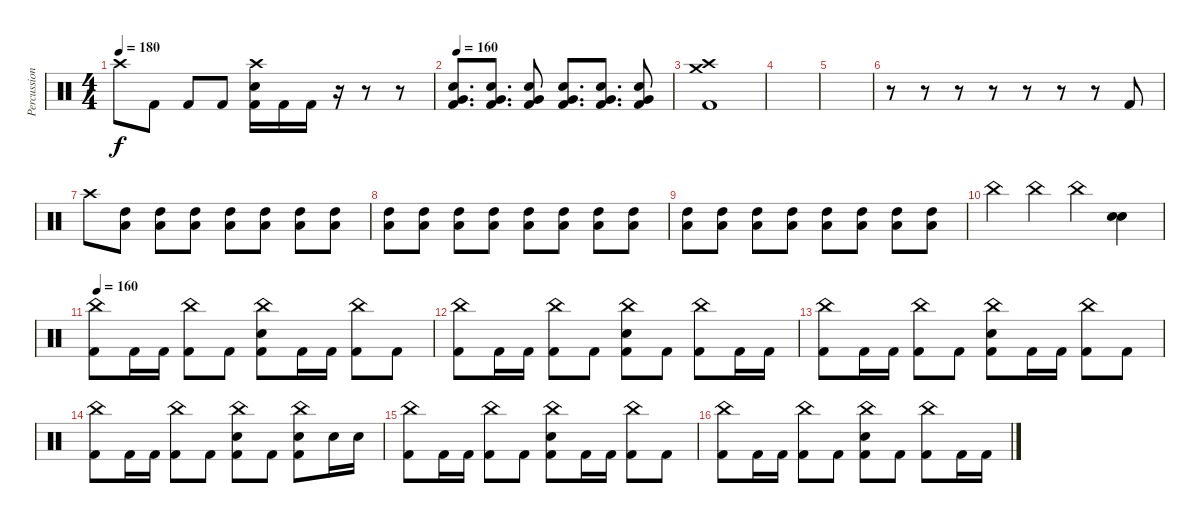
\track ("Percussioni" "Percussion") {instrument percussion}
\staff {score}
\articulation defaults
\ts (4 4)
\tempo 180
\clef neutral
\ks c "Crash high (hit)".8{dy f} "Kick (hit) 2".8 "Kick (hit) 2".8 "Kick (hit) 2".8
("Crash high (hit)" "Electric Snare (hit)" "Kick (hit) 2").16 "Kick (hit) 2".16 "Kick (hit) 2".16 r.16 r.8 r.8 |
\tempo 160
("Electric Snare (hit)" "Very Low Tom (hit)" "Kick (hit) 2").8{d} ("Electric Snare (hit)" "Very Low Tom (hit)" "Kick (hit) 2").8{d} ("Electric Snare (hit)" "Very Low Tom (hit)" "Kick (hit) 2").8 ("Electric Snare (hit)" "Very Low Tom (hit)" "Kick (hit) 2").8{d} ("Electric Snare (hit)" "Very Low Tom (hit)" "Kick (hit) 2").8{d} ("Electric Snare (hit)" "Very Low Tom (hit)" "Kick (hit) 2").8 |
("Crash medium (hit)" "Crash high (hit)" "Kick (hit) 2").1 |
|
|
r.8 r.8 r.8 r.8 r.8 r.8 r.8 "Kick (hit) 2".8 |
"Crash high (hit)".8 ("High Tom (hit)" "Low Floor Tom (hit)").8{volume 7} ("High Tom (hit)" "Low Floor Tom (hit)").8 ("High Tom (hit)" "Low Floor Tom (hit)").8 ("High Tom (hit)" "Low Floor Tom (hit)").8{volume 8} ("High Tom (hit)" "Low Floor Tom (hit)").8 ("High Tom (hit)" "Low Floor Tom (hit)").8 ("High Tom (hit)" "Low Floor Tom (hit)").8 |
("High Tom (hit)" "Low Floor Tom (hit)").8{volume 9} ("High Tom (hit)" "Low Floor Tom (hit)").8 ("High Tom (hit)" "Low Floor Tom (hit)").8 ("High Tom (hit)" "Low Floor Tom (hit)").8 ("High Tom (hit)" "Low Floor Tom (hit)").8{volume 10} ("High Tom (hit)" "Low Floor Tom (hit)").8 ("High Tom (hit)" "Low Floor Tom (hit)").8 ("High Tom (hit)" "Low Floor Tom (hit)").8 |
("High Tom (hit)" "Low Floor Tom (hit)").8{volume 12} ("High Tom (hit)" "Low Floor Tom (hit)").8 ("High Tom (hit)" "Low Floor Tom (hit)").8 ("High Tom (hit)" "Low Floor Tom (hit)").8 ("High Tom (hit)" "Low Floor Tom (hit)").8{volume 14} ("High Tom (hit)" "Low Floor Tom (hit)").8 ("High Tom (hit)" "Low Floor Tom (hit)").8 ("High Tom (hit)" "Low Floor Tom (hit)").8 |
"China (hit)".4{volume 16} "China (hit)".4 "China (hit)".4 ("Electric Snare (hit)" "Electric Snare (hit)").4 |
\tempo 160
("China (hit)" "Kick (hit) 2").8 "Kick (hit) 2".16 "Kick (hit) 2".16 ("China (hit)" "Kick (hit) 2").8 "Kick (hit) 2".8 ("China (hit)" "Electric Snare (hit)" "Kick (hit) 2").8 "Kick (hit) 2".16 "Kick (hit) 2".16 ("China (hit)" "Kick (hit) 2").8 "Kick (hit) 2".8 |
("China (hit)" "Kick (hit) 2").8 "Kick (hit) 2".16 "Kick (hit) 2".16 ("China (hit)" "Kick (hit) 2").8 "Kick (hit) 2".8 ("China (hit)" "Electric Snare (hit)" "Kick (hit) 2").8 "Kick (hit) 2".8 ("China (hit)" "Kick (hit) 2").8 "Kick (hit) 2".16 "Kick (hit) 2".16 |
("China (hit)" "Kick (hit) 2").8 "Kick (hit) 2".16 "Kick (hit) 2".16 ("China (hit)" "Kick (hit) 2").8 "Kick (hit) 2".8 ("China (hit)" "Electric Snare (hit)" "Kick (hit) 2").8 "Kick (hit) 2".16 "Kick (hit) 2".16 ("China (hit)" "Kick (hit) 2").8 "Kick (hit) 2".8 |
("China (hit)" "Kick (hit) 2").8 "Kick (hit) 2".16 "Kick (hit) 2".16 ("China (hit)" "Kick (hit) 2").8 "Kick (hit) 2".8 ("China (hit)" "Electric Snare (hit)" "Kick (hit) 2").8 "Kick (hit) 2".8 ("China (hit)" "Electric Snare (hit)" "Kick (hit) 2").8 "Electric Snare (hit)".16 "Electric Snare (hit)".16 |
("China (hit)" "Kick (hit) 2").8 "Kick (hit) 2".16 "Kick (hit) 2".16 ("China (hit)" "Kick (hit) 2").8 "Kick (hit) 2".8 ("China (hit)" "Electric Snare (hit)" "Kick (hit) 2").8 "Kick (hit) 2".16 "Kick (hit) 2".16 ("China (hit)" "Kick (hit) 2").8 "Kick (hit) 2".8 |
("China (hit)" "Kick (hit) 2").8 "Kick (hit) 2".16 "Kick (hit) 2".16 ("China (hit)" "Kick (hit) 2").8 "Kick (hit) 2".8 ("China (hit)" "Electric Snare (hit)" "Kick (hit) 2").8 "Kick (hit) 2".8 ("China (hit)" "Kick (hit) 2").8 "Kick (hit) 2".16 "Kick (hit) 2".16
